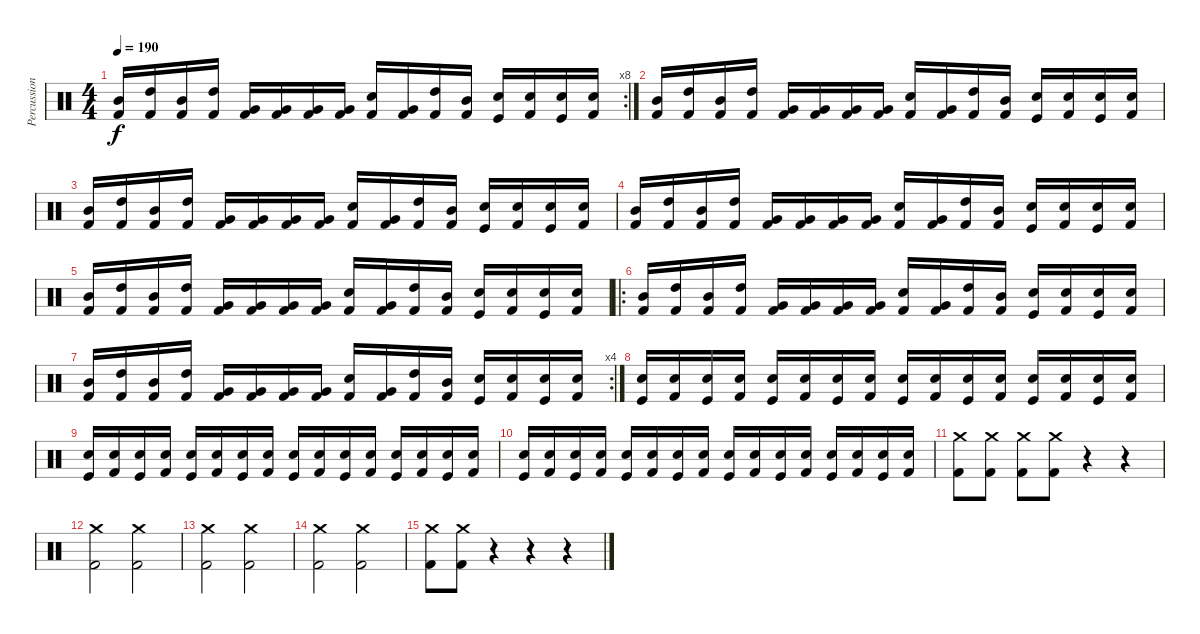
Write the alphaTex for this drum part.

\track ("Percussion" "Percussion") {instrument percussion}
\staff {score}
\articulation defaults
\rc 8
\ts (4 4)
\tempo 190
\clef neutral
\ks c
("Mid Tom (hit)" "Kick (hit) 2").16{dy f} ("High Tom (hit)" "Kick (hit) 2").16 ("Mid Tom (hit)" "Kick (hit) 2").16 ("High Tom (hit)" "Kick (hit) 2").16 ("Very Low Tom (hit)" "Kick (hit) 2").16 ("Very Low Tom (hit)" "Kick (hit) 2").16 ("Very Low Tom (hit)" "Kick (hit) 2").16 ("Very Low Tom (hit)" "Kick (hit) 2").16 ("Electric Snare (hit)" "Kick (hit) 2").16 ("Very Low Tom (hit)" "Kick (hit) 2").16 ("High Tom (hit)" "Kick (hit) 2").16 ("Mid Tom (hit)" "Kick (hit) 2").16 ("Electric Snare (hit)" "Kick (hit)").16 ("Electric Snare (hit)" "Kick (hit) 2").16 ("Electric Snare (hit)" "Kick (hit)").16 ("Electric Snare (hit)" "Kick (hit) 2").16 |
("Mid Tom (hit)" "Kick (hit) 2").16 ("High Tom (hit)" "Kick (hit) 2").16 ("Mid Tom (hit)" "Kick (hit) 2").16 ("High Tom (hit)" "Kick (hit) 2").16 ("Very Low Tom (hit)" "Kick (hit) 2").16 ("Very Low Tom (hit)" "Kick (hit) 2").16 ("Very Low Tom (hit)" "Kick (hit) 2").16 ("Very Low Tom (hit)" "Kick (hit) 2").16 ("Electric Snare (hit)" "Kick (hit) 2").16 ("Very Low Tom (hit)" "Kick (hit) 2").16 ("High Tom (hit)" "Kick (hit) 2").16 ("Mid Tom (hit)" "Kick (hit) 2").16 ("Electric Snare (hit)" "Kick (hit)").16 ("Electric Snare (hit)" "Kick (hit) 2").16 ("Electric Snare (hit)" "Kick (hit)").16 ("Electric Snare (hit)" "Kick (hit) 2").16 |
("Mid Tom (hit)" "Kick (hit) 2").16 ("High Tom (hit)" "Kick (hit) 2").16 ("Mid Tom (hit)" "Kick (hit) 2").16 ("High Tom (hit)" "Kick (hit) 2").16 ("Very Low Tom (hit)" "Kick (hit) 2").16 ("Very Low Tom (hit)" "Kick (hit) 2").16 ("Very Low Tom (hit)" "Kick (hit) 2").16 ("Very Low Tom (hit)" "Kick (hit) 2").16 ("Electric Snare (hit)" "Kick (hit) 2").16 ("Very Low Tom (hit)" "Kick (hit) 2").16 ("High Tom (hit)" "Kick (hit) 2").16 ("Mid Tom (hit)" "Kick (hit) 2").16 ("Electric Snare (hit)" "Kick (hit)").16 ("Electric Snare (hit)" "Kick (hit) 2").16 ("Electric Snare (hit)" "Kick (hit)").16 ("Electric Snare (hit)" "Kick (hit) 2").16 |
("Mid Tom (hit)" "Kick (hit) 2").16 ("High Tom (hit)" "Kick (hit) 2").16 ("Mid Tom (hit)" "Kick (hit) 2").16 ("High Tom (hit)" "Kick (hit) 2").16 ("Very Low Tom (hit)" "Kick (hit) 2").16 ("Very Low Tom (hit)" "Kick (hit) 2").16 ("Very Low Tom (hit)" "Kick (hit) 2").16 ("Very Low Tom (hit)" "Kick (hit) 2").16 ("Electric Snare (hit)" "Kick (hit) 2").16 ("Very Low Tom (hit)" "Kick (hit) 2").16 ("High Tom (hit)" "Kick (hit) 2").16 ("Mid Tom (hit)" "Kick (hit) 2").16 ("Electric Snare (hit)" "Kick (hit)").16 ("Electric Snare (hit)" "Kick (hit) 2").16 ("Electric Snare (hit)" "Kick (hit)").16 ("Electric Snare (hit)" "Kick (hit) 2").16 |
("Mid Tom (hit)" "Kick (hit) 2").16 ("High Tom (hit)" "Kick (hit) 2").16 ("Mid Tom (hit)" "Kick (hit) 2").16 ("High Tom (hit)" "Kick (hit) 2").16 ("Very Low Tom (hit)" "Kick (hit) 2").16 ("Very Low Tom (hit)" "Kick (hit) 2").16 ("Very Low Tom (hit)" "Kick (hit) 2").16 ("Very Low Tom (hit)" "Kick (hit) 2").16 ("Electric Snare (hit)" "Kick (hit) 2").16 ("Very Low Tom (hit)" "Kick (hit) 2").16 ("High Tom (hit)" "Kick (hit) 2").16 ("Mid Tom (hit)" "Kick (hit) 2").16 ("Electric Snare (hit)" "Kick (hit)").16 ("Electric Snare (hit)" "Kick (hit) 2").16 ("Electric Snare (hit)" "Kick (hit)").16 ("Electric Snare (hit)" "Kick (hit) 2").16 |
\ro
("Mid Tom (hit)" "Kick (hit) 2").16 ("High Tom (hit)" "Kick (hit) 2").16 ("Mid Tom (hit)" "Kick (hit) 2").16 ("High Tom (hit)" "Kick (hit) 2").16 ("Very Low Tom (hit)" "Kick (hit) 2").16 ("Very Low Tom (hit)" "Kick (hit) 2").16 ("Very Low Tom (hit)" "Kick (hit) 2").16 ("Very Low Tom (hit)" "Kick (hit) 2").16 ("Electric Snare (hit)" "Kick (hit) 2").16 ("Very Low Tom (hit)" "Kick (hit) 2").16 ("High Tom (hit)" "Kick (hit) 2").16 ("Mid Tom (hit)" "Kick (hit) 2").16 ("Electric Snare (hit)" "Kick (hit)").16 ("Electric Snare (hit)" "Kick (hit) 2").16 ("Electric Snare (hit)" "Kick (hit)").16 ("Electric Snare (hit)" "Kick (hit) 2").16 |
\rc 4
("Mid Tom (hit)" "Kick (hit) 2").16 ("High Tom (hit)" "Kick (hit) 2").16 ("Mid Tom (hit)" "Kick (hit) 2").16 ("High Tom (hit)" "Kick (hit) 2").16 ("Very Low Tom (hit)" "Kick (hit) 2").16 ("Very Low Tom (hit)" "Kick (hit) 2").16 ("Very Low Tom (hit)" "Kick (hit) 2").16 ("Very Low Tom (hit)" "Kick (hit) 2").16 ("Electric Snare (hit)" "Kick (hit) 2").16 ("Very Low Tom (hit)" "Kick (hit) 2").16 ("High Tom (hit)" "Kick (hit) 2").16 ("Mid Tom (hit)" "Kick (hit) 2").16 ("Electric Snare (hit)" "Kick (hit)").16 ("Electric Snare (hit)" "Kick (hit) 2").16 ("Electric Snare (hit)" "Kick (hit)").16 ("Electric Snare (hit)" "Kick (hit) 2").16 |
("Electric Snare (hit)" "Kick (hit)").16 ("Electric Snare (hit)" "Kick (hit) 2").16 ("Electric Snare (hit)" "Kick (hit)").16 ("Electric Snare (hit)" "Kick (hit) 2").16 ("Electric Snare (hit)" "Kick (hit)").16 ("Electric Snare (hit)" "Kick (hit) 2").16 ("Electric Snare (hit)" "Kick (hit)").16 ("Electric Snare (hit)" "Kick (hit) 2").16 ("Electric Snare (hit)" "Kick (hit)").16 ("Electric Snare (hit)" "Kick (hit) 2").16 ("Electric Snare (hit)" "Kick (hit)").16 ("Electric Snare (hit)" "Kick (hit) 2").16 ("Electric Snare (hit)" "Kick (hit)").16 ("Electric Snare (hit)" "Kick (hit) 2").16 ("Electric Snare (hit)" "Kick (hit)").16 ("Electric Snare (hit)" "Kick (hit) 2").16 |
("Electric Snare (hit)" "Kick (hit)").16 ("Electric Snare (hit)" "Kick (hit) 2").16 ("Electric Snare (hit)" "Kick (hit)").16 ("Electric Snare (hit)" "Kick (hit) 2").16 ("Electric Snare (hit)" "Kick (hit)").16 ("Electric Snare (hit)" "Kick (hit) 2").16 ("Electric Snare (hit)" "Kick (hit)").16 ("Electric Snare (hit)" "Kick (hit) 2").16 ("Electric Snare (hit)" "Kick (hit)").16 ("Electric Snare (hit)" "Kick (hit) 2").16 ("Electric Snare (hit)" "Kick (hit)").16 ("Electric Snare (hit)" "Kick (hit) 2").16 ("Electric Snare (hit)" "Kick (hit)").16 ("Electric Snare (hit)" "Kick (hit) 2").16 ("Electric Snare (hit)" "Kick (hit)").16 ("Electric Snare (hit)" "Kick (hit) 2").16 |
("Electric Snare (hit)" "Kick (hit)").16 ("Electric Snare (hit)" "Kick (hit) 2").16 ("Electric Snare (hit)" "Kick (hit)").16 ("Electric Snare (hit)" "Kick (hit) 2").16 ("Electric Snare (hit)" "Kick (hit)").16 ("Electric Snare (hit)" "Kick (hit) 2").16 ("Electric Snare (hit)" "Kick (hit)").16 ("Electric Snare (hit)" "Kick (hit) 2").16 ("Electric Snare (hit)" "Kick (hit)").16 ("Electric Snare (hit)" "Kick (hit) 2").16 ("Electric Snare (hit)" "Kick (hit)").16 ("Electric Snare (hit)" "Kick (hit) 2").16 ("Electric Snare (hit)" "Kick (hit)").16 ("Electric Snare (hit)" "Kick (hit) 2").16 ("Electric Snare (hit)" "Kick (hit)").16 ("Electric Snare (hit)" "Kick (hit) 2").16 |
("Crash medium (hit)" "Kick (hit) 2").8 ("Crash medium (hit)" "Kick (hit) 2").8 ("Crash medium (hit)" "Kick (hit) 2").8 ("Crash medium (hit)" "Kick (hit) 2").8 r.4 r.4 |
("Crash medium (hit)" "Kick (hit) 2").2 ("Crash medium (hit)" "Kick (hit) 2").2 |
("Crash medium (hit)" "Kick (hit) 2").2 ("Crash medium (hit)" "Kick (hit) 2").2 |
("Crash medium (hit)" "Kick (hit) 2").2 ("Crash medium (hit)" "Kick (hit) 2").2 |
("Crash medium (hit)" "Kick (hit) 2").8 ("Crash medium (hit)" "Kick (hit) 2").8 r.4 r.4 r.4
